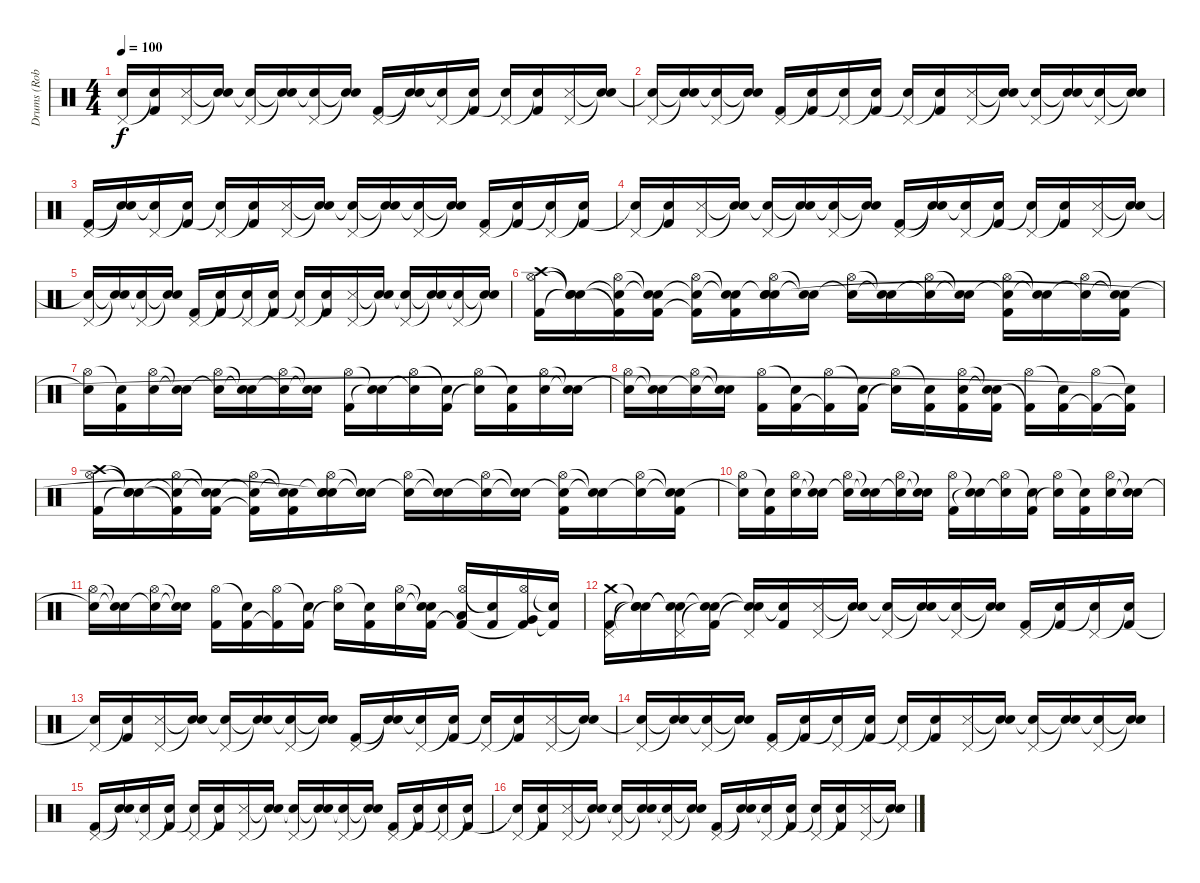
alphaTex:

\track ("Drums (Rob Bourdon)" "Drums (Rob") {instrument percussion}
\staff {score}
\articulation defaults
\ts (4 4)
\tempo 100
\clef neutral
\ks c
("Pedal Hi-Hat (hit)" "Snare (hit)"{t}).16{dy f} ("Snare (hit)"{t} "Kick (hit) 2").16 ("Pedal Hi-Hat (hit)" "Snare (side stick) 3").16 ("Snare (hit)"{t} "Snare (hit)"{t}).16 ("Pedal Hi-Hat (hit)" "Snare (hit)"{t}).16 ("Snare (hit)"{t} "Snare (hit)"{t}).16 ("Pedal Hi-Hat (hit)" "Snare (hit)"{t}).16 ("Snare (hit)"{t} "Snare (hit)"{t}).16 ("Pedal Hi-Hat (hit)" "Kick (hit) 2").16 ("Snare (hit)"{t} "Snare (hit)"{t}).16 ("Pedal Hi-Hat (hit)" "Snare (hit)"{t}).16 ("Snare (hit)"{t} "Kick (hit) 2").16 ("Pedal Hi-Hat (hit)" "Snare (hit)"{t}).16 ("Snare (hit)"{t} "Kick (hit) 2").16 ("Pedal Hi-Hat (hit)" "Snare (side stick) 3").16 ("Snare (hit)"{t} "Snare (hit)"{t}).16 |
("Pedal Hi-Hat (hit)" "Snare (hit)"{t}).16 ("Snare (hit)"{t} "Snare (hit)"{t}).16 ("Pedal Hi-Hat (hit)" "Snare (hit)"{t}).16 ("Snare (hit)"{t} "Snare (hit)"{t}).16 ("Pedal Hi-Hat (hit)" "Kick (hit) 2").16 ("Snare (hit)"{t} "Kick (hit) 2").16 ("Pedal Hi-Hat (hit)" "Snare (hit)"{t}).16 ("Snare (hit)"{t} "Kick (hit) 2").16 ("Pedal Hi-Hat (hit)" "Snare (hit)"{t}).16 ("Snare (hit)"{t} "Kick (hit) 2").16 ("Pedal Hi-Hat (hit)" "Snare (side stick) 3").16 ("Snare (hit)"{t} "Snare (hit)"{t}).16 ("Pedal Hi-Hat (hit)" "Snare (hit)"{t}).16 ("Snare (hit)"{t} "Snare (hit)"{t}).16 ("Pedal Hi-Hat (hit)" "Snare (hit)"{t}).16 ("Snare (hit)"{t} "Snare (hit)"{t}).16 |
("Pedal Hi-Hat (hit)" "Kick (hit) 2").16 ("Snare (hit)"{t} "Snare (hit)"{t}).16 ("Pedal Hi-Hat (hit)" "Snare (hit)"{t}).16 ("Snare (hit)"{t} "Kick (hit) 2").16 ("Pedal Hi-Hat (hit)" "Snare (hit)"{t}).16 ("Snare (hit)"{t} "Kick (hit) 2").16 ("Pedal Hi-Hat (hit)" "Snare (side stick) 3").16 ("Snare (hit)"{t} "Snare (hit)"{t}).16 ("Pedal Hi-Hat (hit)" "Snare (hit)"{t}).16 ("Snare (hit)"{t} "Snare (hit)"{t}).16 ("Pedal Hi-Hat (hit)" "Snare (hit)"{t}).16 ("Snare (hit)"{t} "Snare (hit)"{t}).16 ("Pedal Hi-Hat (hit)" "Kick (hit) 2").16 ("Snare (hit)"{t} "Kick (hit) 2").16 ("Pedal Hi-Hat (hit)" "Snare (hit)"{t}).16 ("Snare (hit)"{t} "Kick (hit) 2").16 |
("Pedal Hi-Hat (hit)" "Snare (hit)"{t}).16 ("Snare (hit)"{t} "Kick (hit) 2").16 ("Pedal Hi-Hat (hit)" "Snare (side stick) 3").16 ("Snare (hit)"{t} "Snare (hit)"{t}).16 ("Pedal Hi-Hat (hit)" "Snare (hit)"{t}).16 ("Snare (hit)"{t} "Snare (hit)"{t}).16 ("Pedal Hi-Hat (hit)" "Snare (hit)"{t}).16 ("Snare (hit)"{t} "Snare (hit)"{t}).16 ("Pedal Hi-Hat (hit)" "Kick (hit) 2").16 ("Snare (hit)"{t} "Snare (hit)"{t}).16 ("Pedal Hi-Hat (hit)" "Snare (hit)"{t}).16 ("Snare (hit)"{t} "Kick (hit) 2").16 ("Pedal Hi-Hat (hit)" "Snare (hit)"{t}).16 ("Snare (hit)"{t} "Kick (hit) 2").16 ("Pedal Hi-Hat (hit)" "Snare (side stick) 3").16 ("Snare (hit)"{t} "Snare (hit)"{t}).16 |
("Pedal Hi-Hat (hit)" "Snare (hit)"{t}).16 ("Snare (hit)"{t} "Snare (hit)"{t}).16 ("Pedal Hi-Hat (hit)" "Snare (hit)"{t}).16 ("Snare (hit)"{t} "Snare (hit)"{t}).16 ("Pedal Hi-Hat (hit)" "Kick (hit) 2").16 ("Snare (hit)"{t} "Kick (hit) 2").16 ("Pedal Hi-Hat (hit)" "Snare (hit)"{t}).16 ("Snare (hit)"{t} "Kick (hit) 2").16 ("Pedal Hi-Hat (hit)" "Snare (hit)"{t}).16 ("Snare (hit)"{t} "Kick (hit) 2").16 ("Pedal Hi-Hat (hit)" "Snare (side stick) 3").16 ("Snare (hit)"{t} "Snare (hit)"{t}).16 ("Pedal Hi-Hat (hit)" "Snare (hit)"{t}).16 ("Snare (hit)"{t} "Snare (hit)"{t}).16 ("Pedal Hi-Hat (hit)" "Snare (hit)"{t}).16 ("Snare (hit)"{t} "Snare (hit)"{t}).16 |
("Crash high (hit)" "Hi-Hat (open)" "Kick (hit) 2").16{volume 13} ("Snare (hit)"{t} "Snare (hit)"{t} "Snare (hit)"{t}).16 ("Snare (hit)"{t} "Hi-Hat (open)" "Kick (hit) 2"{t}).16 ("Snare (hit)"{t} "Snare (hit)"{t} "Kick (hit) 2").16 ("Snare (hit)"{t} "Hi-Hat (open)" "Kick (hit) 2"{t}).16 ("Snare (hit)"{t} "Snare (hit)"{t} "Kick (hit) 2").16 ("Snare (hit)"{t} "Hi-Hat (open)" "Electric Snare (hit)" "Snare (hit)").16 ("Snare (hit)"{t} "Snare (hit)"{t}).16 ("Hi-Hat (open)" "Electric Snare (hit)"{t}).16 ("Snare (hit)"{t} "Snare (hit)"{t}).16 ("Hi-Hat (open)" "Snare (hit)"{t}).16 ("Snare (hit)"{t} "Snare (hit)"{t}).16 ("Hi-Hat (open)" "Snare (hit)"{t} "Kick (hit) 2").16 ("Snare (hit)"{t} "Snare (hit)"{t}).16 ("Hi-Hat (open)" "Snare (hit)"{t}).16 ("Snare (hit)"{t} "Snare (hit)"{t} "Kick (hit) 2").16 |
("Hi-Hat (open)" "Snare (hit)"{t}).16 ("Snare (hit)"{t} "Kick (hit) 2").16 ("Hi-Hat (open)" "Electric Snare (hit)").16 ("Snare (hit)"{t} "Snare (hit)"{t}).16 ("Hi-Hat (open)" "Snare (hit)"{t}).16 ("Snare (hit)"{t} "Snare (hit)"{t}).16 ("Hi-Hat (open)" "Snare (hit)"{t}).16 ("Snare (hit)"{t} "Snare (hit)"{t}).16 ("Hi-Hat (open)" "Kick (hit) 2").16 ("Snare (hit)"{t} "Snare (hit)"{t}).16 ("Hi-Hat (open)" "Snare (hit)"{t}).16 ("Snare (hit)"{t} "Kick (hit) 2").16 ("Hi-Hat (open)" "Snare (hit)"{t}).16 ("Snare (hit)"{t} "Kick (hit) 2").16 ("Hi-Hat (open)" "Electric Snare (hit)").16 ("Snare (hit)"{t} "Snare (hit)"{t}).16 |
("Hi-Hat (open)" "Snare (hit)"{t}).16 ("Snare (hit)"{t} "Snare (hit)"{t}).16 ("Hi-Hat (open)" "Snare (hit)"{t}).16 ("Snare (hit)"{t} "Snare (hit)"{t}).16 ("Hi-Hat (open)" "Kick (hit) 2").16 ("Snare (hit)"{t} "Kick (hit) 2").16 ("Hi-Hat (open)" "Kick (hit) 2"{t}).16 ("Snare (hit)"{t} "Kick (hit) 2").16 ("Hi-Hat (open)" "Snare (hit)"{t}).16 ("Snare (hit)"{t} "Kick (hit) 2").16 ("Hi-Hat (open)" "Electric Snare (hit)" "Kick (hit) 2").16 ("Snare (hit)"{t} "Snare (hit)"{t} "Kick (hit) 2").16 ("Hi-Hat (open)" "Kick (hit) 2"{t}).16 ("Snare (hit)"{t} "Kick (hit) 2").16 ("Hi-Hat (open)" "Kick (hit) 2"{t}).16 ("Snare (hit)"{t} "Kick (hit) 2"{t}).16 |
("Crash high (hit)" "Hi-Hat (open)" "Kick (hit) 2").16 ("Snare (hit)"{t} "Snare (hit)"{t} "Snare (hit)"{t}).16 ("Snare (hit)"{t} "Hi-Hat (open)" "Kick (hit) 2"{t}).16 ("Snare (hit)"{t} "Snare (hit)"{t} "Kick (hit) 2").16 ("Snare (hit)"{t} "Hi-Hat (open)" "Kick (hit) 2"{t}).16 ("Snare (hit)"{t} "Snare (hit)"{t} "Kick (hit) 2").16 ("Snare (hit)"{t} "Hi-Hat (open)" "Electric Snare (hit)" "Snare (hit)"{t}).16 ("Snare (hit)"{t} "Snare (hit)"{t}).16 ("Hi-Hat (open)" "Electric Snare (hit)"{t}).16 ("Snare (hit)"{t} "Snare (hit)"{t}).16 ("Hi-Hat (open)" "Snare (hit)"{t}).16 ("Snare (hit)"{t} "Snare (hit)"{t}).16 ("Hi-Hat (open)" "Snare (hit)"{t} "Kick (hit) 2").16 ("Snare (hit)"{t} "Snare (hit)"{t}).16 ("Hi-Hat (open)" "Snare (hit)"{t}).16 ("Snare (hit)"{t} "Snare (hit)"{t} "Kick (hit) 2").16 |
("Hi-Hat (open)" "Snare (hit)"{t}).16 ("Snare (hit)"{t} "Kick (hit) 2").16 ("Hi-Hat (open)" "Electric Snare (hit)").16 ("Snare (hit)"{t} "Snare (hit)"{t}).16 ("Hi-Hat (open)" "Snare (hit)"{t}).16 ("Snare (hit)"{t} "Snare (hit)"{t}).16 ("Hi-Hat (open)" "Snare (hit)"{t}).16 ("Snare (hit)"{t} "Snare (hit)"{t}).16 ("Hi-Hat (open)" "Kick (hit) 2").16 ("Snare (hit)"{t} "Snare (hit)"{t}).16 ("Hi-Hat (open)" "Snare (hit)"{t}).16 ("Snare (hit)"{t} "Kick (hit) 2").16 ("Hi-Hat (open)" "Snare (hit)"{t}).16 ("Snare (hit)"{t} "Kick (hit) 2").16 ("Hi-Hat (open)" "Electric Snare (hit)").16 ("Snare (hit)"{t} "Snare (hit)"{t}).16 |
("Hi-Hat (open)" "Snare (hit)"{t}).16 ("Snare (hit)"{t} "Snare (hit)"{t}).16 ("Hi-Hat (open)" "Snare (hit)"{t}).16 ("Snare (hit)"{t} "Snare (hit)"{t}).16 ("Hi-Hat (open)" "Kick (hit) 2").16 ("Snare (hit)"{t} "Kick (hit) 2").16 ("Hi-Hat (open)" "Kick (hit) 2"{t}).16 ("Snare (hit)"{t} "Kick (hit) 2").16 ("Hi-Hat (open)" "Snare (hit)"{t}).16 ("Snare (hit)"{t} "Kick (hit) 2").16 ("Hi-Hat (open)" "Electric Snare (hit)").16 ("Snare (hit)"{t} "Snare (hit)"{t} "Kick (hit) 2").16 ("Hi-Hat (open)" "Low Tom (hit)" "Kick (hit) 2"{t}).16 ("Snare (hit)"{t} "Kick (hit) 2").16 ("Hi-Hat (open)" "Very Low Tom (hit)" "Kick (hit) 2"{t}).16 ("Snare (hit)"{t} "Kick (hit) 2"{t}).16 |
("Crash medium (hit)" "Pedal Hi-Hat (hit)" "Kick (hit) 2").16 ("Snare (hit)"{t} "Snare (hit)"{t} "Snare (hit)"{t}).16 ("Snare (hit)"{t} "Pedal Hi-Hat (hit)" "Snare (hit)"{t}).16 ("Snare (hit)"{t} "Snare (hit)"{t} "Kick (hit) 2").16 ("Snare (hit)"{t} "Pedal Hi-Hat (hit)" "Snare (hit)"{t}).16 ("Snare (hit)"{t} "Kick (hit) 2").16 ("Pedal Hi-Hat (hit)" "Snare (side stick) 3").16 ("Snare (hit)"{t} "Snare (hit)"{t}).16 ("Pedal Hi-Hat (hit)" "Snare (hit)"{t}).16 ("Snare (hit)"{t} "Snare (hit)"{t}).16 ("Pedal Hi-Hat (hit)" "Snare (hit)"{t}).16 ("Snare (hit)"{t} "Snare (hit)"{t}).16 ("Pedal Hi-Hat (hit)" "Kick (hit) 2").16 ("Snare (hit)"{t} "Kick (hit) 2").16 ("Pedal Hi-Hat (hit)" "Snare (hit)"{t}).16 ("Snare (hit)"{t} "Kick (hit) 2").16 |
("Pedal Hi-Hat (hit)" "Snare (hit)"{t}).16 ("Snare (hit)"{t} "Kick (hit) 2").16 ("Pedal Hi-Hat (hit)" "Snare (side stick) 3").16 ("Snare (hit)"{t} "Snare (hit)"{t}).16 ("Pedal Hi-Hat (hit)" "Snare (hit)"{t}).16 ("Snare (hit)"{t} "Snare (hit)"{t}).16 ("Pedal Hi-Hat (hit)" "Snare (hit)"{t}).16 ("Snare (hit)"{t} "Snare (hit)"{t}).16 ("Pedal Hi-Hat (hit)" "Kick (hit) 2").16 ("Snare (hit)"{t} "Snare (hit)"{t}).16 ("Pedal Hi-Hat (hit)" "Snare (hit)"{t}).16 ("Snare (hit)"{t} "Kick (hit) 2").16 ("Pedal Hi-Hat (hit)" "Snare (hit)"{t}).16 ("Snare (hit)"{t} "Kick (hit) 2").16 ("Pedal Hi-Hat (hit)" "Snare (side stick) 3").16 ("Snare (hit)"{t} "Snare (hit)"{t}).16 |
("Pedal Hi-Hat (hit)" "Snare (hit)"{t}).16 ("Snare (hit)"{t} "Snare (hit)"{t}).16 ("Pedal Hi-Hat (hit)" "Snare (hit)"{t}).16 ("Snare (hit)"{t} "Snare (hit)"{t}).16 ("Pedal Hi-Hat (hit)" "Kick (hit) 2").16 ("Snare (hit)"{t} "Kick (hit) 2").16 ("Pedal Hi-Hat (hit)" "Snare (hit)"{t}).16 ("Snare (hit)"{t} "Kick (hit) 2").16 ("Pedal Hi-Hat (hit)" "Snare (hit)"{t}).16 ("Snare (hit)"{t} "Kick (hit) 2").16 ("Pedal Hi-Hat (hit)" "Snare (side stick) 3").16 ("Snare (hit)"{t} "Snare (hit)"{t}).16 ("Pedal Hi-Hat (hit)" "Snare (hit)"{t}).16 ("Snare (hit)"{t} "Snare (hit)"{t}).16 ("Pedal Hi-Hat (hit)" "Snare (hit)"{t}).16 ("Snare (hit)"{t} "Snare (hit)"{t}).16 |
("Pedal Hi-Hat (hit)" "Kick (hit) 2").16 ("Snare (hit)"{t} "Snare (hit)"{t}).16 ("Pedal Hi-Hat (hit)" "Snare (hit)"{t}).16 ("Snare (hit)"{t} "Kick (hit) 2").16 ("Pedal Hi-Hat (hit)" "Snare (hit)"{t}).16 ("Snare (hit)"{t} "Kick (hit) 2").16 ("Pedal Hi-Hat (hit)" "Snare (side stick) 3").16 ("Snare (hit)"{t} "Snare (hit)"{t}).16 ("Pedal Hi-Hat (hit)" "Snare (hit)"{t}).16 ("Snare (hit)"{t} "Snare (hit)"{t}).16 ("Pedal Hi-Hat (hit)" "Snare (hit)"{t}).16 ("Snare (hit)"{t} "Snare (hit)"{t}).16 ("Pedal Hi-Hat (hit)" "Kick (hit) 2").16 ("Snare (hit)"{t} "Kick (hit) 2").16 ("Pedal Hi-Hat (hit)" "Snare (hit)"{t}).16 ("Snare (hit)"{t} "Kick (hit) 2").16 |
("Pedal Hi-Hat (hit)" "Snare (hit)"{t}).16 ("Snare (hit)"{t} "Kick (hit) 2").16 ("Pedal Hi-Hat (hit)" "Snare (side stick) 3").16 ("Snare (hit)"{t} "Snare (hit)"{t}).16 ("Pedal Hi-Hat (hit)" "Snare (hit)"{t}).16 ("Snare (hit)"{t} "Snare (hit)"{t}).16 ("Pedal Hi-Hat (hit)" "Snare (hit)"{t}).16 ("Snare (hit)"{t} "Snare (hit)"{t}).16 ("Pedal Hi-Hat (hit)" "Kick (hit) 2").16 ("Snare (hit)"{t} "Snare (hit)"{t}).16 ("Pedal Hi-Hat (hit)" "Snare (hit)"{t}).16 ("Snare (hit)"{t} "Kick (hit) 2").16 ("Pedal Hi-Hat (hit)" "Snare (hit)"{t}).16 ("Snare (hit)"{t} "Kick (hit) 2").16 ("Pedal Hi-Hat (hit)" "Snare (side stick) 3").16 ("Snare (hit)"{t} "Snare (hit)"{t}).16
